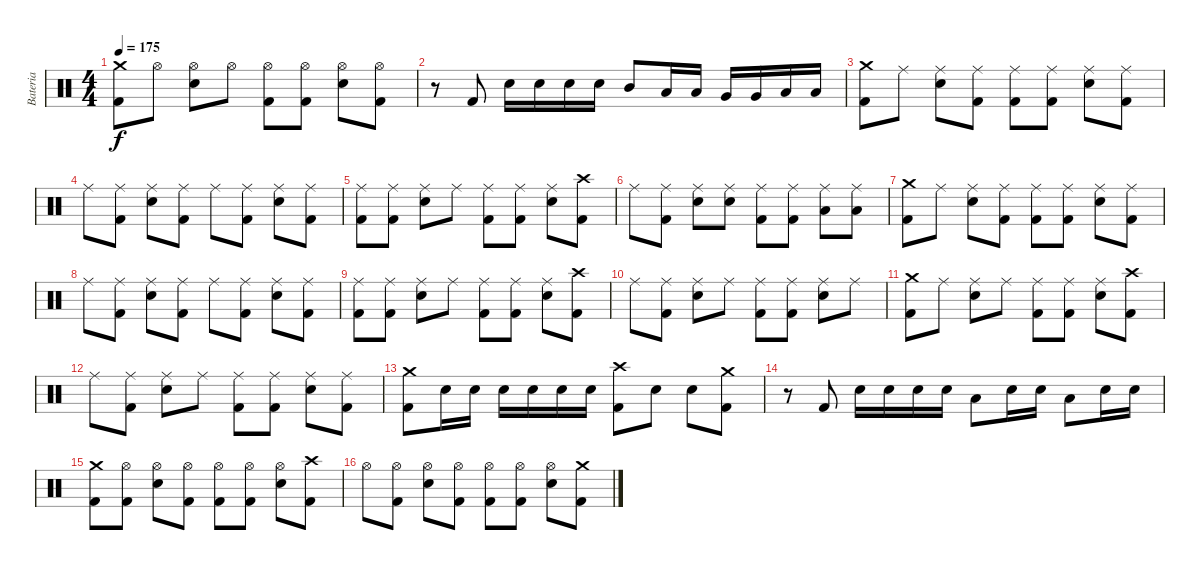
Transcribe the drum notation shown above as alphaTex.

\track ("Bateria" "Bateria") {instrument percussion}
\staff {score}
\articulation defaults
\ts (4 4)
\tempo 175
\clef neutral
\ks c
("Kick (hit) 2" "Crash medium (hit)").8{dy f} "Hi-Hat (open)".8 ("Snare (hit) 2" "Hi-Hat (open)").8 "Hi-Hat (open)".8 ("Kick (hit) 2" "Hi-Hat (open)").8 ("Kick (hit) 2" "Hi-Hat (open)").8 ("Snare (hit) 2" "Hi-Hat (open)").8 ("Kick (hit) 2" "Hi-Hat (open)").8 |
r.8 "Kick (hit) 2".8 "Snare (hit) 2".16 "Snare (hit) 2".16 "Snare (hit) 2".16 "Snare (hit) 2".16 "Mid Tom (hit)".8 "Low Tom (hit)".16 "Low Tom (hit)".16 "Very Low Tom (hit)".16 "Very Low Tom (hit)".16 "Low Floor Tom (hit)".16 "Low Floor Tom (hit)".16 |
("Kick (hit) 2" "Crash medium (hit)").8 "Ride (middle)".8 ("Snare (hit) 2" "Ride (middle)").8 ("Kick (hit) 2" "Ride (middle)").8 ("Kick (hit) 2" "Ride (middle)").8 ("Kick (hit) 2" "Ride (middle)").8 ("Snare (hit) 2" "Ride (middle)").8 ("Kick (hit) 2" "Ride (middle)").8 |
"Ride (middle)".8 ("Kick (hit) 2" "Ride (middle)").8 ("Snare (hit) 2" "Ride (middle)").8 ("Kick (hit) 2" "Ride (middle)").8 "Ride (middle)".8 ("Kick (hit) 2" "Ride (middle)").8 ("Snare (hit) 2" "Ride (middle)").8 ("Kick (hit) 2" "Ride (middle)").8 |
("Kick (hit) 2" "Ride (middle)").8 ("Kick (hit) 2" "Ride (middle)").8 ("Snare (hit) 2" "Ride (middle)").8 "Ride (middle)".8 ("Kick (hit) 2" "Ride (middle)").8 ("Kick (hit) 2" "Ride (middle)").8 ("Snare (hit) 2" "Ride (middle)").8 ("Kick (hit) 2" "Crash high (hit)").8 |
"Ride (middle)".8 ("Kick (hit) 2" "Ride (middle)").8 ("Snare (hit) 2" "Ride (middle)").8 ("Snare (hit) 2" "Ride (middle)").8 ("Kick (hit) 2" "Ride (middle)").8 ("Kick (hit) 2" "Ride (middle)").8 ("Low Tom (hit)" "Ride (middle)").8 ("Low Tom (hit)" "Ride (middle)").8 |
("Kick (hit) 2" "Crash medium (hit)").8 "Ride (middle)".8 ("Snare (hit) 2" "Ride (middle)").8 ("Kick (hit) 2" "Ride (middle)").8 ("Kick (hit) 2" "Ride (middle)").8 ("Kick (hit) 2" "Ride (middle)").8 ("Snare (hit) 2" "Ride (middle)").8 ("Kick (hit) 2" "Ride (middle)").8 |
"Ride (middle)".8 ("Kick (hit) 2" "Ride (middle)").8 ("Snare (hit) 2" "Ride (middle)").8 ("Kick (hit) 2" "Ride (middle)").8 "Ride (middle)".8 ("Kick (hit) 2" "Ride (middle)").8 ("Snare (hit) 2" "Ride (middle)").8 ("Kick (hit) 2" "Ride (middle)").8 |
("Kick (hit) 2" "Ride (middle)").8 ("Kick (hit) 2" "Ride (middle)").8 ("Snare (hit) 2" "Ride (middle)").8 "Ride (middle)".8 ("Kick (hit) 2" "Ride (middle)").8 ("Kick (hit) 2" "Ride (middle)").8 ("Snare (hit) 2" "Ride (middle)").8 ("Kick (hit) 2" "Crash high (hit)").8 |
"Ride (middle)".8 ("Kick (hit) 2" "Ride (middle)").8 ("Snare (hit) 2" "Ride (middle)").8 "Ride (middle)".8 ("Kick (hit) 2" "Ride (middle)").8 ("Kick (hit) 2" "Ride (middle)").8 ("Snare (hit) 2" "Ride (middle)").8 "Ride (middle)".8 |
("Kick (hit) 2" "Crash medium (hit)").8 "Ride (middle)".8 ("Snare (hit) 2" "Ride (middle)").8 "Ride (middle)".8 ("Kick (hit) 2" "Ride (middle)").8 ("Kick (hit) 2" "Ride (middle)").8 ("Snare (hit) 2" "Ride (middle)").8 ("Kick (hit) 2" "Crash high (hit)").8 |
"Ride (middle)".8 ("Kick (hit) 2" "Ride (middle)").8 ("Snare (hit) 2" "Ride (middle)").8 "Ride (middle)".8 ("Kick (hit) 2" "Ride (middle)").8 ("Kick (hit) 2" "Ride (middle)").8 ("Snare (hit) 2" "Ride (middle)").8 ("Kick (hit) 2" "Ride (middle)").8 |
("Kick (hit) 2" "Crash medium (hit)").8 "Snare (hit) 2".16 "Snare (hit) 2".16 "Snare (hit) 2".16 "Snare (hit) 2".16 "Snare (hit) 2".16 "Snare (hit) 2".16 ("Kick (hit) 2" "Crash high (hit)").8 "Snare (hit) 2".8 "Snare (hit) 2".8 ("Kick (hit) 2" "Crash medium (hit)").8 |
r.8 "Kick (hit) 2".8 "Snare (hit) 2".16 "Snare (hit) 2".16 "Snare (hit) 2".16 "Snare (hit) 2".16 "Low Tom (hit)".8 "Snare (hit) 2".16 "Snare (hit) 2".16 "Low Tom (hit)".8 "Snare (hit) 2".16 "Snare (hit) 2".16 |
("Kick (hit) 2" "Crash medium (hit)").8 ("Kick (hit) 2" "Hi-Hat (open)").8 ("Snare (hit) 2" "Hi-Hat (open)").8 ("Kick (hit) 2" "Hi-Hat (open)").8 ("Kick (hit) 2" "Hi-Hat (open)").8 ("Kick (hit) 2" "Hi-Hat (open)").8 ("Snare (hit) 2" "Hi-Hat (open)").8 ("Kick (hit) 2" "Crash high (hit)").8 |
"Hi-Hat (open)".8 ("Kick (hit) 2" "Hi-Hat (open)").8 ("Snare (hit) 2" "Hi-Hat (open)").8 ("Kick (hit) 2" "Hi-Hat (open)").8 ("Kick (hit) 2" "Hi-Hat (open)").8 ("Kick (hit) 2" "Hi-Hat (open)").8 ("Snare (hit) 2" "Hi-Hat (open)").8 ("Kick (hit) 2" "Crash medium (hit)").8
